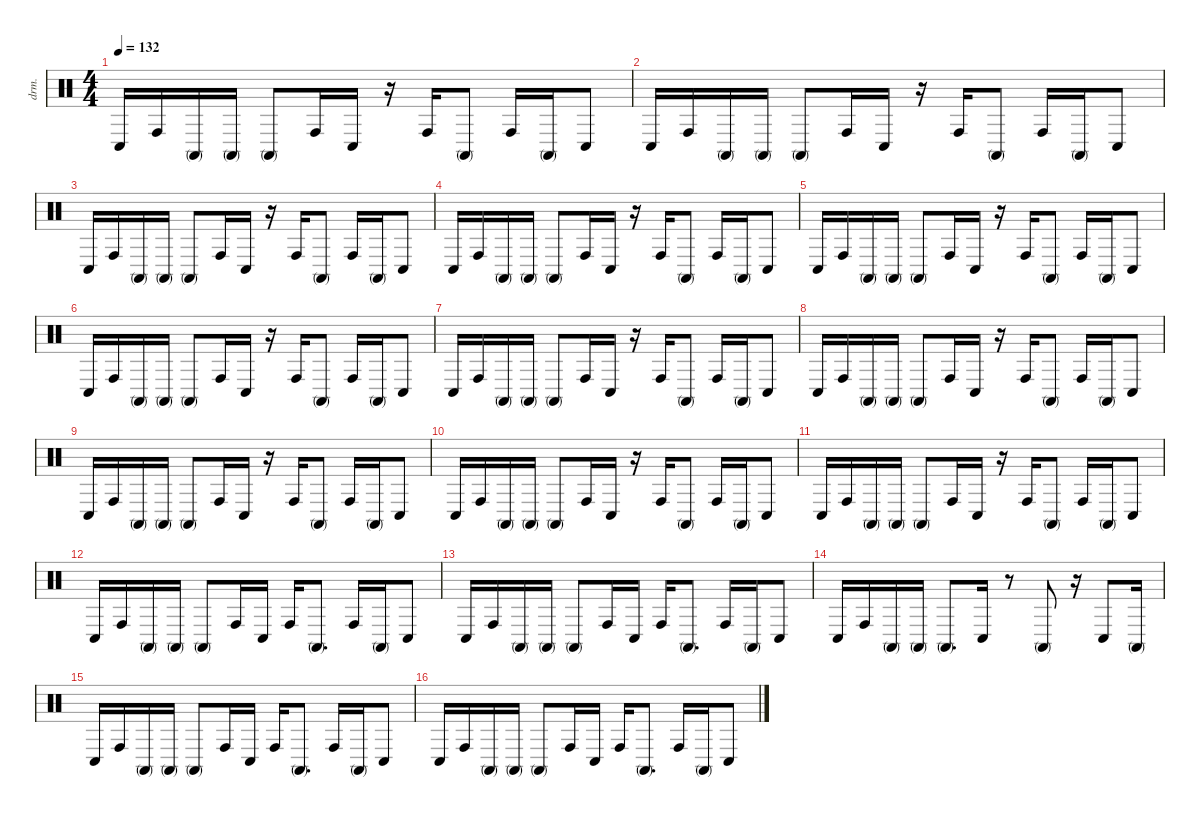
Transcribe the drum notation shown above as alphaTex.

\defaultSystemsLayout 4
\hideDynamics
\bracketExtendMode nobrackets
\track ("congas" "drm.") {instrument percussion}
\staff {score}
\articulation defaults
\ts (4 4)
\tempo 132
\clef neutral
\ks c "Conga low (hit)".16{dy f} "Conga high (hit)".16 "Conga high (mute)".16 "Conga high (mute)".16 "Conga high (mute)".8 "Conga high (hit)".16 "Conga low (hit)".16
r.16 "Conga high (hit)".16 "Conga high (mute)".8 "Conga high (hit)".16 "Conga high (mute)".16 "Conga low (hit)".8 |
"Conga low (hit)".16 "Conga high (hit)".16 "Conga high (mute)".16 "Conga high (mute)".16 "Conga high (mute)".8 "Conga high (hit)".16 "Conga low (hit)".16 r.16 "Conga high (hit)".16 "Conga high (mute)".8 "Conga high (hit)".16 "Conga high (mute)".16 "Conga low (hit)".8 |
"Conga low (hit)".16 "Conga high (hit)".16 "Conga high (mute)".16 "Conga high (mute)".16 "Conga high (mute)".8 "Conga high (hit)".16 "Conga low (hit)".16 r.16 "Conga high (hit)".16 "Conga high (mute)".8 "Conga high (hit)".16 "Conga high (mute)".16 "Conga low (hit)".8 |
"Conga low (hit)".16 "Conga high (hit)".16 "Conga high (mute)".16 "Conga high (mute)".16 "Conga high (mute)".8 "Conga high (hit)".16 "Conga low (hit)".16 r.16 "Conga high (hit)".16 "Conga high (mute)".8 "Conga high (hit)".16 "Conga high (mute)".16 "Conga low (hit)".8 |
"Conga low (hit)".16 "Conga high (hit)".16 "Conga high (mute)".16 "Conga high (mute)".16 "Conga high (mute)".8 "Conga high (hit)".16 "Conga low (hit)".16 r.16 "Conga high (hit)".16 "Conga high (mute)".8 "Conga high (hit)".16 "Conga high (mute)".16 "Conga low (hit)".8 |
"Conga low (hit)".16 "Conga high (hit)".16 "Conga high (mute)".16 "Conga high (mute)".16 "Conga high (mute)".8 "Conga high (hit)".16 "Conga low (hit)".16 r.16 "Conga high (hit)".16 "Conga high (mute)".8 "Conga high (hit)".16 "Conga high (mute)".16 "Conga low (hit)".8 |
"Conga low (hit)".16 "Conga high (hit)".16 "Conga high (mute)".16 "Conga high (mute)".16 "Conga high (mute)".8 "Conga high (hit)".16 "Conga low (hit)".16 r.16 "Conga high (hit)".16 "Conga high (mute)".8 "Conga high (hit)".16 "Conga high (mute)".16 "Conga low (hit)".8 |
"Conga low (hit)".16 "Conga high (hit)".16 "Conga high (mute)".16 "Conga high (mute)".16 "Conga high (mute)".8 "Conga high (hit)".16 "Conga low (hit)".16 r.16 "Conga high (hit)".16 "Conga high (mute)".8 "Conga high (hit)".16 "Conga high (mute)".16 "Conga low (hit)".8 |
"Conga low (hit)".16 "Conga high (hit)".16 "Conga high (mute)".16 "Conga high (mute)".16 "Conga high (mute)".8 "Conga high (hit)".16 "Conga low (hit)".16 r.16 "Conga high (hit)".16 "Conga high (mute)".8 "Conga high (hit)".16 "Conga high (mute)".16 "Conga low (hit)".8 |
"Conga low (hit)".16 "Conga high (hit)".16 "Conga high (mute)".16 "Conga high (mute)".16 "Conga high (mute)".8 "Conga high (hit)".16 "Conga low (hit)".16 r.16 "Conga high (hit)".16 "Conga high (mute)".8 "Conga high (hit)".16 "Conga high (mute)".16 "Conga low (hit)".8 |
"Conga low (hit)".16 "Conga high (hit)".16 "Conga high (mute)".16 "Conga high (mute)".16 "Conga high (mute)".8 "Conga high (hit)".16 "Conga low (hit)".16 r.16 "Conga high (hit)".16 "Conga high (mute)".8 "Conga high (hit)".16 "Conga high (mute)".16 "Conga low (hit)".8 |
"Conga low (hit)".16 "Conga high (hit)".16 "Conga high (mute)".16 "Conga high (mute)".16 "Conga high (mute)".8 "Conga high (hit)".16 "Conga low (hit)".16 "Conga high (hit)".16 "Conga high (mute)".8{d} "Conga high (hit)".16 "Conga high (mute)".16 "Conga low (hit)".8 |
"Conga low (hit)".16 "Conga high (hit)".16 "Conga high (mute)".16 "Conga high (mute)".16 "Conga high (mute)".8 "Conga high (hit)".16 "Conga low (hit)".16 "Conga high (hit)".16 "Conga high (mute)".8{d} "Conga high (hit)".16 "Conga high (mute)".16 "Conga low (hit)".8 |
"Conga low (hit)".16 "Conga high (hit)".16 "Conga high (mute)".16 "Conga high (mute)".16 "Conga high (mute)".8{d} "Conga low (hit)".16 r.8 "Conga high (mute)".8 r.16 "Conga low (hit)".8 "Conga high (mute)".16 |
"Conga low (hit)".16 "Conga high (hit)".16 "Conga high (mute)".16 "Conga high (mute)".16 "Conga high (mute)".8 "Conga high (hit)".16 "Conga low (hit)".16 "Conga high (hit)".16 "Conga high (mute)".8{d} "Conga high (hit)".16 "Conga high (mute)".16 "Conga low (hit)".8 |
"Conga low (hit)".16 "Conga high (hit)".16 "Conga high (mute)".16 "Conga high (mute)".16 "Conga high (mute)".8 "Conga high (hit)".16 "Conga low (hit)".16 "Conga high (hit)".16 "Conga high (mute)".8{d} "Conga high (hit)".16 "Conga high (mute)".16 "Conga low (hit)".8
